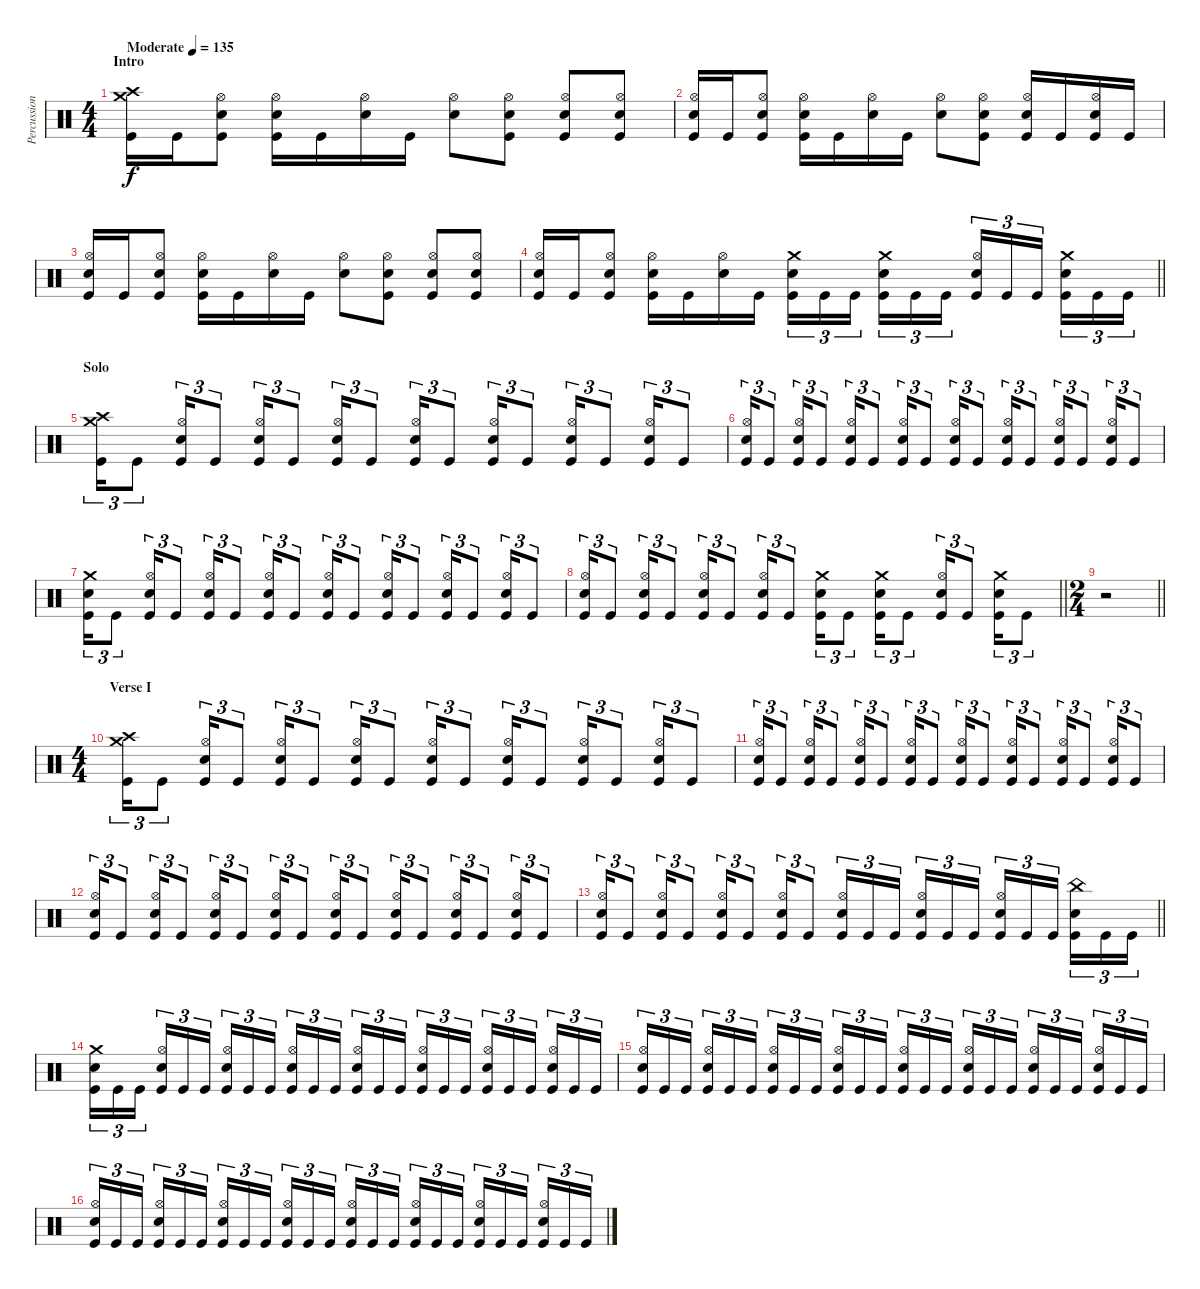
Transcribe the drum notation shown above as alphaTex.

\track ("Percussion" "Percussion") {instrument percussion}
\staff {score}
\articulation defaults
\ts (4 4)
\section ("" "Intro")
\tempo (135 "Moderate")
\clef neutral
\ks c
("Crash high (hit)" "Crash medium (hit)" "Kick (hit)").16{dy f} "Kick (hit)".16 ("Hi-Hat (open)" "Electric Snare (hit)" "Kick (hit)").8 ("Hi-Hat (open)" "Electric Snare (hit)" "Kick (hit)").16 "Kick (hit)".16 ("Hi-Hat (open)" "Electric Snare (hit)").16 "Kick (hit)".16 ("Hi-Hat (open)" "Electric Snare (hit)").8 ("Hi-Hat (open)" "Electric Snare (hit)" "Kick (hit)").8 ("Hi-Hat (open)" "Electric Snare (hit)" "Kick (hit)").8 ("Hi-Hat (open)" "Electric Snare (hit)" "Kick (hit)").8 |
("Hi-Hat (open)" "Electric Snare (hit)" "Kick (hit)").16 "Kick (hit)".16 ("Hi-Hat (open)" "Electric Snare (hit)" "Kick (hit)").8 ("Hi-Hat (open)" "Electric Snare (hit)" "Kick (hit)").16 "Kick (hit)".16 ("Hi-Hat (open)" "Electric Snare (hit)").16 "Kick (hit)".16 ("Hi-Hat (open)" "Electric Snare (hit)").8 ("Hi-Hat (open)" "Electric Snare (hit)" "Kick (hit)").8 ("Hi-Hat (open)" "Electric Snare (hit)" "Kick (hit)").16 "Kick (hit)".16 ("Hi-Hat (open)" "Electric Snare (hit)" "Kick (hit)").16 "Kick (hit)".16 |
("Hi-Hat (open)" "Electric Snare (hit)" "Kick (hit)").16 "Kick (hit)".16 ("Hi-Hat (open)" "Electric Snare (hit)" "Kick (hit)").8 ("Hi-Hat (open)" "Electric Snare (hit)" "Kick (hit)").16 "Kick (hit)".16 ("Hi-Hat (open)" "Electric Snare (hit)").16 "Kick (hit)".16 ("Hi-Hat (open)" "Electric Snare (hit)").8 ("Hi-Hat (open)" "Electric Snare (hit)" "Kick (hit)").8 ("Hi-Hat (open)" "Electric Snare (hit)" "Kick (hit)").8 ("Hi-Hat (open)" "Electric Snare (hit)" "Kick (hit)").8 |
\barLineRight lightlight
("Hi-Hat (open)" "Electric Snare (hit)" "Kick (hit)").16 "Kick (hit)".16 ("Hi-Hat (open)" "Electric Snare (hit)" "Kick (hit)").8 ("Hi-Hat (open)" "Electric Snare (hit)" "Kick (hit)").16 "Kick (hit)".16 ("Hi-Hat (open)" "Electric Snare (hit)").16 "Kick (hit)".16 ("Crash medium (hit)" "Electric Snare (hit)" "Kick (hit)").16{tu (3 2)} "Kick (hit)".16{tu (3 2)} "Kick (hit)".16{tu (3 2) beam splitsecondary} ("Crash medium (hit)" "Electric Snare (hit)" "Kick (hit)").16{tu (3 2)} "Kick (hit)".16{tu (3 2)} "Kick (hit)".16{tu (3 2)} ("Hi-Hat (open)" "Electric Snare (hit)" "Kick (hit)").16{tu (3 2)} "Kick (hit)".16{tu (3 2)} "Kick (hit)".16{tu (3 2) beam splitsecondary} ("Crash medium (hit)" "Electric Snare (hit)" "Kick (hit)").16{tu (3 2)} "Kick (hit)".16{tu (3 2)} "Kick (hit)".16{tu (3 2)} |
\section ("" "Solo")
("Crash high (hit)" "Crash medium (hit)" "Kick (hit)").16{tu (3 2)} "Kick (hit)".8{tu (3 2)} ("Hi-Hat (open)" "Electric Snare (hit)" "Kick (hit)").16{tu (3 2)} "Kick (hit)".8{tu (3 2)} ("Hi-Hat (open)" "Electric Snare (hit)" "Kick (hit)").16{tu (3 2)} "Kick (hit)".8{tu (3 2)} ("Hi-Hat (open)" "Electric Snare (hit)" "Kick (hit)").16{tu (3 2)} "Kick (hit)".8{tu (3 2)} ("Hi-Hat (open)" "Electric Snare (hit)" "Kick (hit)").16{tu (3 2)} "Kick (hit)".8{tu (3 2)} ("Hi-Hat (open)" "Electric Snare (hit)" "Kick (hit)").16{tu (3 2)} "Kick (hit)".8{tu (3 2)} ("Hi-Hat (open)" "Electric Snare (hit)" "Kick (hit)").16{tu (3 2)} "Kick (hit)".8{tu (3 2)} ("Hi-Hat (open)" "Electric Snare (hit)" "Kick (hit)").16{tu (3 2)} "Kick (hit)".8{tu (3 2)} |
("Hi-Hat (open)" "Electric Snare (hit)" "Kick (hit)").16{tu (3 2)} "Kick (hit)".8{tu (3 2)} ("Hi-Hat (open)" "Electric Snare (hit)" "Kick (hit)").16{tu (3 2)} "Kick (hit)".8{tu (3 2)} ("Hi-Hat (open)" "Electric Snare (hit)" "Kick (hit)").16{tu (3 2)} "Kick (hit)".8{tu (3 2)} ("Hi-Hat (open)" "Electric Snare (hit)" "Kick (hit)").16{tu (3 2)} "Kick (hit)".8{tu (3 2)} ("Hi-Hat (open)" "Electric Snare (hit)" "Kick (hit)").16{tu (3 2)} "Kick (hit)".8{tu (3 2)} ("Hi-Hat (open)" "Electric Snare (hit)" "Kick (hit)").16{tu (3 2)} "Kick (hit)".8{tu (3 2)} ("Hi-Hat (open)" "Electric Snare (hit)" "Kick (hit)").16{tu (3 2)} "Kick (hit)".8{tu (3 2)} ("Hi-Hat (open)" "Electric Snare (hit)" "Kick (hit)").16{tu (3 2)} "Kick (hit)".8{tu (3 2)} |
("Crash medium (hit)" "Electric Snare (hit)" "Kick (hit)").16{tu (3 2)} "Kick (hit)".8{tu (3 2)} ("Hi-Hat (open)" "Electric Snare (hit)" "Kick (hit)").16{tu (3 2)} "Kick (hit)".8{tu (3 2)} ("Hi-Hat (open)" "Electric Snare (hit)" "Kick (hit)").16{tu (3 2)} "Kick (hit)".8{tu (3 2)} ("Hi-Hat (open)" "Electric Snare (hit)" "Kick (hit)").16{tu (3 2)} "Kick (hit)".8{tu (3 2)} ("Hi-Hat (open)" "Electric Snare (hit)" "Kick (hit)").16{tu (3 2)} "Kick (hit)".8{tu (3 2)} ("Hi-Hat (open)" "Electric Snare (hit)" "Kick (hit)").16{tu (3 2)} "Kick (hit)".8{tu (3 2)} ("Hi-Hat (open)" "Electric Snare (hit)" "Kick (hit)").16{tu (3 2)} "Kick (hit)".8{tu (3 2)} ("Hi-Hat (open)" "Electric Snare (hit)" "Kick (hit)").16{tu (3 2)} "Kick (hit)".8{tu (3 2)} |
\barLineRight lightlight
("Hi-Hat (open)" "Electric Snare (hit)" "Kick (hit)").16{tu (3 2)} "Kick (hit)".8{tu (3 2)} ("Hi-Hat (open)" "Electric Snare (hit)" "Kick (hit)").16{tu (3 2)} "Kick (hit)".8{tu (3 2)} ("Hi-Hat (open)" "Electric Snare (hit)" "Kick (hit)").16{tu (3 2)} "Kick (hit)".8{tu (3 2)} ("Hi-Hat (open)" "Electric Snare (hit)" "Kick (hit)").16{tu (3 2)} "Kick (hit)".8{tu (3 2)} ("Crash medium (hit)" "Electric Snare (hit)" "Kick (hit)").16{tu (3 2)} "Kick (hit)".8{tu (3 2)} ("Crash medium (hit)" "Electric Snare (hit)" "Kick (hit)").16{tu (3 2)} "Kick (hit)".8{tu (3 2)} ("Hi-Hat (open)" "Electric Snare (hit)" "Kick (hit)").16{tu (3 2)} "Kick (hit)".8{tu (3 2)} ("Crash medium (hit)" "Electric Snare (hit)" "Kick (hit)").16{tu (3 2)} "Kick (hit)".8{tu (3 2)} |
\ts (2 4)
\barLineRight lightlight
r.2 |
\ts (4 4)
\section ("" "Verse I")
("Crash high (hit)" "Crash medium (hit)" "Kick (hit)").16{tu (3 2)} "Kick (hit)".8{tu (3 2)} ("Hi-Hat (open)" "Electric Snare (hit)" "Kick (hit)").16{tu (3 2)} "Kick (hit)".8{tu (3 2)} ("Hi-Hat (open)" "Electric Snare (hit)" "Kick (hit)").16{tu (3 2)} "Kick (hit)".8{tu (3 2)} ("Hi-Hat (open)" "Electric Snare (hit)" "Kick (hit)").16{tu (3 2)} "Kick (hit)".8{tu (3 2)} ("Hi-Hat (open)" "Electric Snare (hit)" "Kick (hit)").16{tu (3 2)} "Kick (hit)".8{tu (3 2)} ("Hi-Hat (open)" "Electric Snare (hit)" "Kick (hit)").16{tu (3 2)} "Kick (hit)".8{tu (3 2)} ("Hi-Hat (open)" "Electric Snare (hit)" "Kick (hit)").16{tu (3 2)} "Kick (hit)".8{tu (3 2)} ("Hi-Hat (open)" "Electric Snare (hit)" "Kick (hit)").16{tu (3 2)} "Kick (hit)".8{tu (3 2)} |
("Hi-Hat (open)" "Electric Snare (hit)" "Kick (hit)").16{tu (3 2)} "Kick (hit)".8{tu (3 2)} ("Hi-Hat (open)" "Electric Snare (hit)" "Kick (hit)").16{tu (3 2)} "Kick (hit)".8{tu (3 2)} ("Hi-Hat (open)" "Electric Snare (hit)" "Kick (hit)").16{tu (3 2)} "Kick (hit)".8{tu (3 2)} ("Hi-Hat (open)" "Electric Snare (hit)" "Kick (hit)").16{tu (3 2)} "Kick (hit)".8{tu (3 2)} ("Hi-Hat (open)" "Electric Snare (hit)" "Kick (hit)").16{tu (3 2)} "Kick (hit)".8{tu (3 2)} ("Hi-Hat (open)" "Electric Snare (hit)" "Kick (hit)").16{tu (3 2)} "Kick (hit)".8{tu (3 2)} ("Hi-Hat (open)" "Electric Snare (hit)" "Kick (hit)").16{tu (3 2)} "Kick (hit)".8{tu (3 2)} ("Hi-Hat (open)" "Electric Snare (hit)" "Kick (hit)").16{tu (3 2)} "Kick (hit)".8{tu (3 2)} |
("Hi-Hat (open)" "Electric Snare (hit)" "Kick (hit)").16{tu (3 2)} "Kick (hit)".8{tu (3 2)} ("Hi-Hat (open)" "Electric Snare (hit)" "Kick (hit)").16{tu (3 2)} "Kick (hit)".8{tu (3 2)} ("Hi-Hat (open)" "Electric Snare (hit)" "Kick (hit)").16{tu (3 2)} "Kick (hit)".8{tu (3 2)} ("Hi-Hat (open)" "Electric Snare (hit)" "Kick (hit)").16{tu (3 2)} "Kick (hit)".8{tu (3 2)} ("Hi-Hat (open)" "Electric Snare (hit)" "Kick (hit)").16{tu (3 2)} "Kick (hit)".8{tu (3 2)} ("Hi-Hat (open)" "Electric Snare (hit)" "Kick (hit)").16{tu (3 2)} "Kick (hit)".8{tu (3 2)} ("Hi-Hat (open)" "Electric Snare (hit)" "Kick (hit)").16{tu (3 2)} "Kick (hit)".8{tu (3 2)} ("Hi-Hat (open)" "Electric Snare (hit)" "Kick (hit)").16{tu (3 2)} "Kick (hit)".8{tu (3 2)} |
\barLineRight lightlight
("Hi-Hat (open)" "Electric Snare (hit)" "Kick (hit)").16{tu (3 2)} "Kick (hit)".8{tu (3 2)} ("Hi-Hat (open)" "Electric Snare (hit)" "Kick (hit)").16{tu (3 2)} "Kick (hit)".8{tu (3 2)} ("Hi-Hat (open)" "Electric Snare (hit)" "Kick (hit)").16{tu (3 2)} "Kick (hit)".8{tu (3 2)} ("Hi-Hat (open)" "Electric Snare (hit)" "Kick (hit)").16{tu (3 2)} "Kick (hit)".8{tu (3 2)} ("Hi-Hat (open)" "Electric Snare (hit)" "Kick (hit)").16{tu (3 2)} "Kick (hit)".16{tu (3 2)} "Kick (hit)".16{tu (3 2) beam splitsecondary} ("Hi-Hat (open)" "Electric Snare (hit)" "Kick (hit)").16{tu (3 2)} "Kick (hit)".16{tu (3 2)} "Kick (hit)".16{tu (3 2)} ("Hi-Hat (open)" "Electric Snare (hit)" "Kick (hit)").16{tu (3 2)} "Kick (hit)".16{tu (3 2)} "Kick (hit)".16{tu (3 2) beam splitsecondary} ("China (hit)" "Electric Snare (hit)" "Kick (hit)").16{tu (3 2)} "Kick (hit)".16{tu (3 2)} "Kick (hit)".16{tu (3 2)} |
("Crash medium (hit)" "Electric Snare (hit)" "Kick (hit)").16{tu (3 2)} "Kick (hit)".16{tu (3 2)} "Kick (hit)".16{tu (3 2) beam splitsecondary} ("Hi-Hat (open)" "Electric Snare (hit)" "Kick (hit)").16{tu (3 2)} "Kick (hit)".16{tu (3 2)} "Kick (hit)".16{tu (3 2)} ("Hi-Hat (open)" "Electric Snare (hit)" "Kick (hit)").16{tu (3 2)} "Kick (hit)".16{tu (3 2)} "Kick (hit)".16{tu (3 2) beam splitsecondary} ("Hi-Hat (open)" "Electric Snare (hit)" "Kick (hit)").16{tu (3 2)} "Kick (hit)".16{tu (3 2)} "Kick (hit)".16{tu (3 2)} ("Hi-Hat (open)" "Electric Snare (hit)" "Kick (hit)").16{tu (3 2)} "Kick (hit)".16{tu (3 2)} "Kick (hit)".16{tu (3 2) beam splitsecondary} ("Hi-Hat (open)" "Electric Snare (hit)" "Kick (hit)").16{tu (3 2)} "Kick (hit)".16{tu (3 2)} "Kick (hit)".16{tu (3 2)} ("Hi-Hat (open)" "Electric Snare (hit)" "Kick (hit)").16{tu (3 2)} "Kick (hit)".16{tu (3 2)} "Kick (hit)".16{tu (3 2) beam splitsecondary} ("Hi-Hat (open)" "Electric Snare (hit)" "Kick (hit)").16{tu (3 2)} "Kick (hit)".16{tu (3 2)} "Kick (hit)".16{tu (3 2)} |
("Hi-Hat (open)" "Electric Snare (hit)" "Kick (hit)").16{tu (3 2)} "Kick (hit)".16{tu (3 2)} "Kick (hit)".16{tu (3 2) beam splitsecondary} ("Hi-Hat (open)" "Electric Snare (hit)" "Kick (hit)").16{tu (3 2)} "Kick (hit)".16{tu (3 2)} "Kick (hit)".16{tu (3 2)} ("Hi-Hat (open)" "Electric Snare (hit)" "Kick (hit)").16{tu (3 2)} "Kick (hit)".16{tu (3 2)} "Kick (hit)".16{tu (3 2) beam splitsecondary} ("Hi-Hat (open)" "Electric Snare (hit)" "Kick (hit)").16{tu (3 2)} "Kick (hit)".16{tu (3 2)} "Kick (hit)".16{tu (3 2)} ("Hi-Hat (open)" "Electric Snare (hit)" "Kick (hit)").16{tu (3 2)} "Kick (hit)".16{tu (3 2)} "Kick (hit)".16{tu (3 2) beam splitsecondary} ("Hi-Hat (open)" "Electric Snare (hit)" "Kick (hit)").16{tu (3 2)} "Kick (hit)".16{tu (3 2)} "Kick (hit)".16{tu (3 2)} ("Hi-Hat (open)" "Electric Snare (hit)" "Kick (hit)").16{tu (3 2)} "Kick (hit)".16{tu (3 2)} "Kick (hit)".16{tu (3 2) beam splitsecondary} ("Hi-Hat (open)" "Electric Snare (hit)" "Kick (hit)").16{tu (3 2)} "Kick (hit)".16{tu (3 2)} "Kick (hit)".16{tu (3 2)} |
("Hi-Hat (open)" "Electric Snare (hit)" "Kick (hit)").16{tu (3 2)} "Kick (hit)".16{tu (3 2)} "Kick (hit)".16{tu (3 2) beam splitsecondary} ("Hi-Hat (open)" "Electric Snare (hit)" "Kick (hit)").16{tu (3 2)} "Kick (hit)".16{tu (3 2)} "Kick (hit)".16{tu (3 2)} ("Hi-Hat (open)" "Electric Snare (hit)" "Kick (hit)").16{tu (3 2)} "Kick (hit)".16{tu (3 2)} "Kick (hit)".16{tu (3 2) beam splitsecondary} ("Hi-Hat (open)" "Electric Snare (hit)" "Kick (hit)").16{tu (3 2)} "Kick (hit)".16{tu (3 2)} "Kick (hit)".16{tu (3 2)} ("Hi-Hat (open)" "Electric Snare (hit)" "Kick (hit)").16{tu (3 2)} "Kick (hit)".16{tu (3 2)} "Kick (hit)".16{tu (3 2) beam splitsecondary} ("Hi-Hat (open)" "Electric Snare (hit)" "Kick (hit)").16{tu (3 2)} "Kick (hit)".16{tu (3 2)} "Kick (hit)".16{tu (3 2)} ("Hi-Hat (open)" "Electric Snare (hit)" "Kick (hit)").16{tu (3 2)} "Kick (hit)".16{tu (3 2)} "Kick (hit)".16{tu (3 2) beam splitsecondary} ("Hi-Hat (open)" "Electric Snare (hit)" "Kick (hit)").16{tu (3 2)} "Kick (hit)".16{tu (3 2)} "Kick (hit)".16{tu (3 2)}
